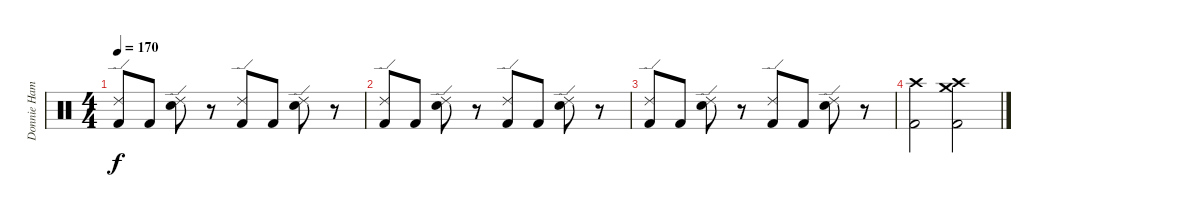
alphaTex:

\track ("Donnie Hamzik(Drums)" "Donnie Ham") {instrument percussion}
\staff {score}
\articulation defaults
\ts (4 4)
\tempo 170
\clef neutral
\ks c
("Ride (edge) 2" "Kick (hit) 2").8{dy f} "Kick (hit) 2".8 ("Snare (hit) 2" "Ride (edge) 2").8 r.8 ("Ride (edge) 2" "Kick (hit) 2").8 "Kick (hit) 2".8 ("Snare (hit) 2" "Ride (edge) 2").8 r.8 |
("Ride (edge) 2" "Kick (hit) 2").8 "Kick (hit) 2".8 ("Snare (hit) 2" "Ride (edge) 2").8 r.8 ("Ride (edge) 2" "Kick (hit) 2").8 "Kick (hit) 2".8 ("Snare (hit) 2" "Ride (edge) 2").8 r.8 |
("Ride (edge) 2" "Kick (hit) 2").8 "Kick (hit) 2".8 ("Snare (hit) 2" "Ride (edge) 2").8 r.8 ("Ride (edge) 2" "Kick (hit) 2").8 "Kick (hit) 2".8 ("Snare (hit) 2" "Ride (edge) 2").8 r.8 |
("Crash high (hit)" "Kick (hit) 2").2 ("Crash medium (hit)" "Crash high (hit)" "Kick (hit) 2").2
